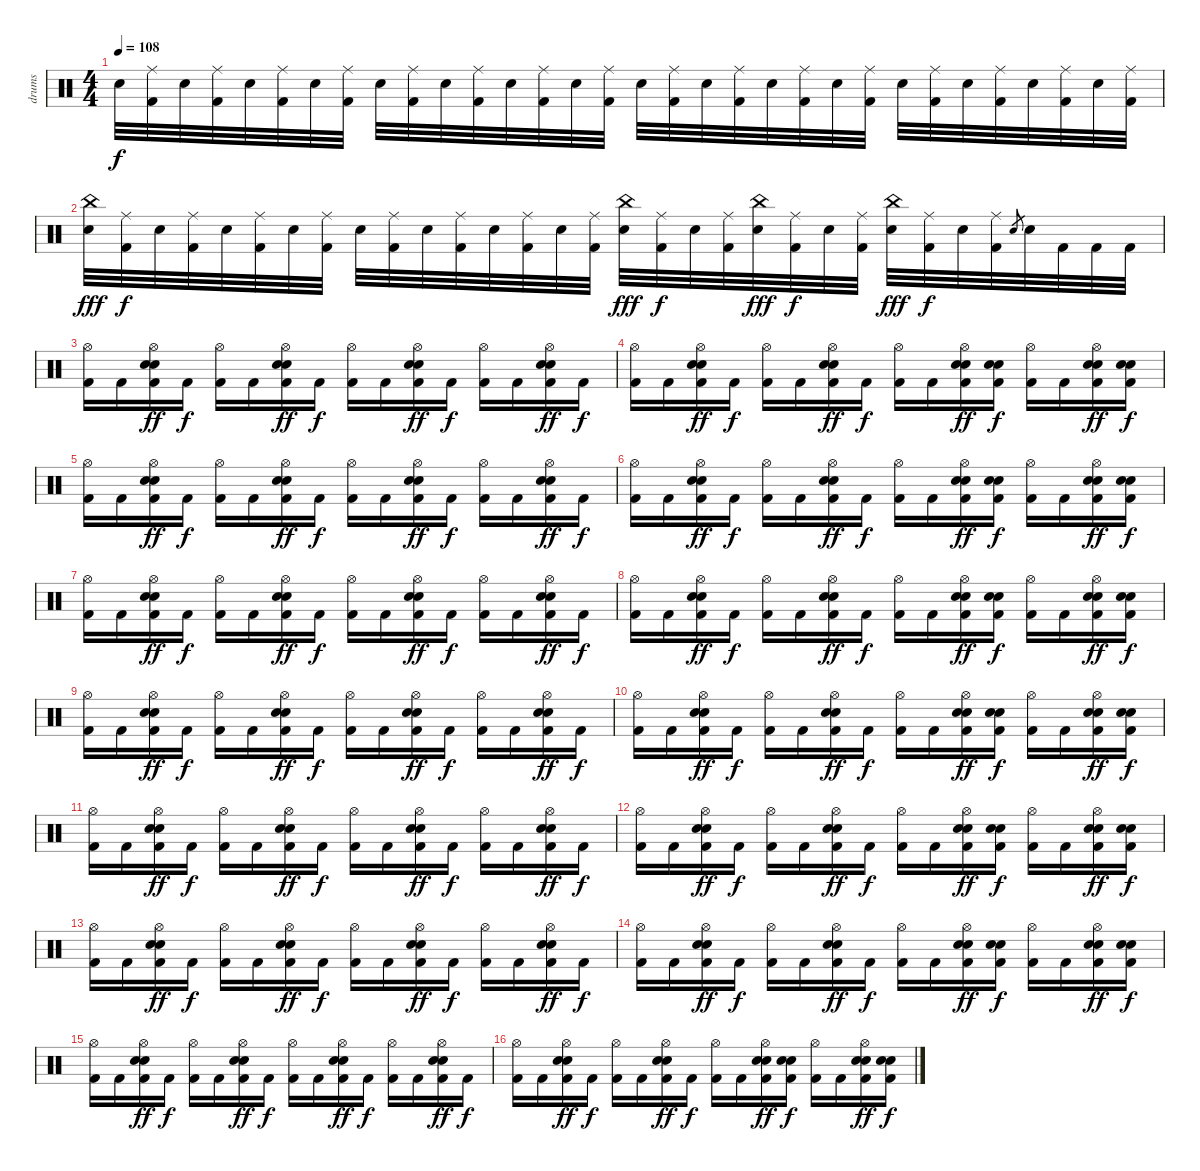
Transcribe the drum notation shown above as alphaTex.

\track ("drums" "drums") {instrument percussion}
\staff {score}
\articulation defaults
\ts (4 4)
\tempo 108
\clef neutral
\ks c "Electric Snare (hit)".32{dy f}
("Ride (middle)" "Kick (hit) 2").32 "Electric Snare (hit)".32 ("Ride (middle)" "Kick (hit) 2").32 "Electric Snare (hit)".32 ("Ride (middle)" "Kick (hit) 2").32 "Electric Snare (hit)".32 ("Ride (middle)" "Kick (hit) 2").32 "Electric Snare (hit)".32 ("Ride (middle)" "Kick (hit) 2").32 "Electric Snare (hit)".32 ("Ride (middle)" "Kick (hit) 2").32 "Electric Snare (hit)".32 ("Ride (middle)" "Kick (hit) 2").32 "Electric Snare (hit)".32 ("Ride (middle)" "Kick (hit) 2").32 "Electric Snare (hit)".32 ("Ride (middle)" "Kick (hit) 2").32 "Electric Snare (hit)".32 ("Ride (middle)" "Kick (hit) 2").32 "Electric Snare (hit)".32 ("Ride (middle)" "Kick (hit) 2").32 "Electric Snare (hit)".32 ("Ride (middle)" "Kick (hit) 2").32 "Electric Snare (hit)".32 ("Ride (middle)" "Kick (hit) 2").32 "Electric Snare (hit)".32 ("Ride (middle)" "Kick (hit) 2").32 "Electric Snare (hit)".32 ("Ride (middle)" "Kick (hit) 2").32 "Electric Snare (hit)".32 ("Ride (middle)" "Kick (hit) 2").32 |
("Electric Snare (hit)" "China (hit)").32{dy fff} ("Ride (middle)" "Kick (hit) 2").32{dy f} "Electric Snare (hit)".32 ("Ride (middle)" "Kick (hit) 2").32 "Electric Snare (hit)".32 ("Ride (middle)" "Kick (hit) 2").32 "Electric Snare (hit)".32 ("Ride (middle)" "Kick (hit) 2").32 "Electric Snare (hit)".32 ("Ride (middle)" "Kick (hit) 2").32 "Electric Snare (hit)".32 ("Ride (middle)" "Kick (hit) 2").32 "Electric Snare (hit)".32 ("Ride (middle)" "Kick (hit) 2").32 "Electric Snare (hit)".32 ("Ride (middle)" "Kick (hit) 2").32 ("Electric Snare (hit)" "China (hit)").32{dy fff} ("Ride (middle)" "Kick (hit) 2").32{dy f} "Electric Snare (hit)".32 ("Ride (middle)" "Kick (hit) 2").32 ("Electric Snare (hit)" "China (hit)").32{dy fff} ("Ride (middle)" "Kick (hit) 2").32{dy f} "Electric Snare (hit)".32 ("Ride (middle)" "Kick (hit) 2").32 ("Electric Snare (hit)" "China (hit)").32{dy fff} ("Ride (middle)" "Kick (hit) 2").32{dy f} "Electric Snare (hit)".32 ("Ride (middle)" "Kick (hit) 2").32 "Electric Snare (hit)".8{gr} "Electric Snare (hit)".32 "Kick (hit) 2".32 "Kick (hit) 2".32 "Kick (hit) 2".32 |
("Hi-Hat (open)" "Kick (hit) 2").16 "Kick (hit) 2".16 ("Electric Snare (hit)" "Hand Clap (hit)" "Hi-Hat (open)" "Kick (hit) 2").16{dy ff} "Kick (hit) 2".16{dy f} ("Hi-Hat (open)" "Kick (hit) 2").16 "Kick (hit) 2".16 ("Electric Snare (hit)" "Hand Clap (hit)" "Hi-Hat (open)" "Kick (hit) 2").16{dy ff} "Kick (hit) 2".16{dy f} ("Hi-Hat (open)" "Kick (hit) 2").16 "Kick (hit) 2".16 ("Electric Snare (hit)" "Hand Clap (hit)" "Hi-Hat (open)" "Kick (hit) 2").16{dy ff} "Kick (hit) 2".16{dy f} ("Hi-Hat (open)" "Kick (hit) 2").16 "Kick (hit) 2".16 ("Electric Snare (hit)" "Hand Clap (hit)" "Hi-Hat (open)" "Kick (hit) 2").16{dy ff} "Kick (hit) 2".16{dy f} |
("Hi-Hat (open)" "Kick (hit) 2").16 "Kick (hit) 2".16 ("Electric Snare (hit)" "Hand Clap (hit)" "Hi-Hat (open)" "Kick (hit) 2").16{dy ff} "Kick (hit) 2".16{dy f} ("Hi-Hat (open)" "Kick (hit) 2").16 "Kick (hit) 2".16 ("Electric Snare (hit)" "Hand Clap (hit)" "Hi-Hat (open)" "Kick (hit) 2").16{dy ff} "Kick (hit) 2".16{dy f} ("Hi-Hat (open)" "Kick (hit) 2").16 "Kick (hit) 2".16 ("Electric Snare (hit)" "Hand Clap (hit)" "Hi-Hat (open)" "Kick (hit) 2").16{dy ff} ("Electric Snare (hit)" "Hand Clap (hit)" "Kick (hit) 2").16{dy f} ("Hi-Hat (open)" "Kick (hit) 2").16 "Kick (hit) 2".16 ("Electric Snare (hit)" "Hand Clap (hit)" "Hi-Hat (open)" "Kick (hit) 2").16{dy ff} ("Electric Snare (hit)" "Hand Clap (hit)" "Kick (hit) 2").16{dy f} |
("Hi-Hat (open)" "Kick (hit) 2").16 "Kick (hit) 2".16 ("Electric Snare (hit)" "Hand Clap (hit)" "Hi-Hat (open)" "Kick (hit) 2").16{dy ff} "Kick (hit) 2".16{dy f} ("Hi-Hat (open)" "Kick (hit) 2").16 "Kick (hit) 2".16 ("Electric Snare (hit)" "Hand Clap (hit)" "Hi-Hat (open)" "Kick (hit) 2").16{dy ff} "Kick (hit) 2".16{dy f} ("Hi-Hat (open)" "Kick (hit) 2").16 "Kick (hit) 2".16 ("Electric Snare (hit)" "Hand Clap (hit)" "Hi-Hat (open)" "Kick (hit) 2").16{dy ff} "Kick (hit) 2".16{dy f} ("Hi-Hat (open)" "Kick (hit) 2").16 "Kick (hit) 2".16 ("Electric Snare (hit)" "Hand Clap (hit)" "Hi-Hat (open)" "Kick (hit) 2").16{dy ff} "Kick (hit) 2".16{dy f} |
("Hi-Hat (open)" "Kick (hit) 2").16 "Kick (hit) 2".16 ("Electric Snare (hit)" "Hand Clap (hit)" "Hi-Hat (open)" "Kick (hit) 2").16{dy ff} "Kick (hit) 2".16{dy f} ("Hi-Hat (open)" "Kick (hit) 2").16 "Kick (hit) 2".16 ("Electric Snare (hit)" "Hand Clap (hit)" "Hi-Hat (open)" "Kick (hit) 2").16{dy ff} "Kick (hit) 2".16{dy f} ("Hi-Hat (open)" "Kick (hit) 2").16 "Kick (hit) 2".16 ("Electric Snare (hit)" "Hand Clap (hit)" "Hi-Hat (open)" "Kick (hit) 2").16{dy ff} ("Electric Snare (hit)" "Hand Clap (hit)" "Kick (hit) 2").16{dy f} ("Hi-Hat (open)" "Kick (hit) 2").16 "Kick (hit) 2".16 ("Electric Snare (hit)" "Hand Clap (hit)" "Hi-Hat (open)" "Kick (hit) 2").16{dy ff} ("Electric Snare (hit)" "Hand Clap (hit)" "Kick (hit) 2").16{dy f} |
("Hi-Hat (open)" "Kick (hit) 2").16 "Kick (hit) 2".16 ("Electric Snare (hit)" "Hand Clap (hit)" "Hi-Hat (open)" "Kick (hit) 2").16{dy ff} "Kick (hit) 2".16{dy f} ("Hi-Hat (open)" "Kick (hit) 2").16 "Kick (hit) 2".16 ("Electric Snare (hit)" "Hand Clap (hit)" "Hi-Hat (open)" "Kick (hit) 2").16{dy ff} "Kick (hit) 2".16{dy f} ("Hi-Hat (open)" "Kick (hit) 2").16 "Kick (hit) 2".16 ("Electric Snare (hit)" "Hand Clap (hit)" "Hi-Hat (open)" "Kick (hit) 2").16{dy ff} "Kick (hit) 2".16{dy f} ("Hi-Hat (open)" "Kick (hit) 2").16 "Kick (hit) 2".16 ("Electric Snare (hit)" "Hand Clap (hit)" "Hi-Hat (open)" "Kick (hit) 2").16{dy ff} "Kick (hit) 2".16{dy f} |
("Hi-Hat (open)" "Kick (hit) 2").16 "Kick (hit) 2".16 ("Electric Snare (hit)" "Hand Clap (hit)" "Hi-Hat (open)" "Kick (hit) 2").16{dy ff} "Kick (hit) 2".16{dy f} ("Hi-Hat (open)" "Kick (hit) 2").16 "Kick (hit) 2".16 ("Electric Snare (hit)" "Hand Clap (hit)" "Hi-Hat (open)" "Kick (hit) 2").16{dy ff} "Kick (hit) 2".16{dy f} ("Hi-Hat (open)" "Kick (hit) 2").16 "Kick (hit) 2".16 ("Electric Snare (hit)" "Hand Clap (hit)" "Hi-Hat (open)" "Kick (hit) 2").16{dy ff} ("Electric Snare (hit)" "Hand Clap (hit)" "Kick (hit) 2").16{dy f} ("Hi-Hat (open)" "Kick (hit) 2").16 "Kick (hit) 2".16 ("Electric Snare (hit)" "Hand Clap (hit)" "Hi-Hat (open)" "Kick (hit) 2").16{dy ff} ("Electric Snare (hit)" "Hand Clap (hit)" "Kick (hit) 2").16{dy f} |
("Hi-Hat (open)" "Kick (hit) 2").16 "Kick (hit) 2".16 ("Electric Snare (hit)" "Hand Clap (hit)" "Hi-Hat (open)" "Kick (hit) 2").16{dy ff} "Kick (hit) 2".16{dy f} ("Hi-Hat (open)" "Kick (hit) 2").16 "Kick (hit) 2".16 ("Electric Snare (hit)" "Hand Clap (hit)" "Hi-Hat (open)" "Kick (hit) 2").16{dy ff} "Kick (hit) 2".16{dy f} ("Hi-Hat (open)" "Kick (hit) 2").16 "Kick (hit) 2".16 ("Electric Snare (hit)" "Hand Clap (hit)" "Hi-Hat (open)" "Kick (hit) 2").16{dy ff} "Kick (hit) 2".16{dy f} ("Hi-Hat (open)" "Kick (hit) 2").16 "Kick (hit) 2".16 ("Electric Snare (hit)" "Hand Clap (hit)" "Hi-Hat (open)" "Kick (hit) 2").16{dy ff} "Kick (hit) 2".16{dy f} |
("Hi-Hat (open)" "Kick (hit) 2").16 "Kick (hit) 2".16 ("Electric Snare (hit)" "Hand Clap (hit)" "Hi-Hat (open)" "Kick (hit) 2").16{dy ff} "Kick (hit) 2".16{dy f} ("Hi-Hat (open)" "Kick (hit) 2").16 "Kick (hit) 2".16 ("Electric Snare (hit)" "Hand Clap (hit)" "Hi-Hat (open)" "Kick (hit) 2").16{dy ff} "Kick (hit) 2".16{dy f} ("Hi-Hat (open)" "Kick (hit) 2").16 "Kick (hit) 2".16 ("Electric Snare (hit)" "Hand Clap (hit)" "Hi-Hat (open)" "Kick (hit) 2").16{dy ff} ("Electric Snare (hit)" "Hand Clap (hit)" "Kick (hit) 2").16{dy f} ("Hi-Hat (open)" "Kick (hit) 2").16 "Kick (hit) 2".16 ("Electric Snare (hit)" "Hand Clap (hit)" "Hi-Hat (open)" "Kick (hit) 2").16{dy ff} ("Electric Snare (hit)" "Hand Clap (hit)" "Kick (hit) 2").16{dy f} |
("Hi-Hat (open)" "Kick (hit) 2").16 "Kick (hit) 2".16 ("Electric Snare (hit)" "Hand Clap (hit)" "Hi-Hat (open)" "Kick (hit) 2").16{dy ff} "Kick (hit) 2".16{dy f} ("Hi-Hat (open)" "Kick (hit) 2").16 "Kick (hit) 2".16 ("Electric Snare (hit)" "Hand Clap (hit)" "Hi-Hat (open)" "Kick (hit) 2").16{dy ff} "Kick (hit) 2".16{dy f} ("Hi-Hat (open)" "Kick (hit) 2").16 "Kick (hit) 2".16 ("Electric Snare (hit)" "Hand Clap (hit)" "Hi-Hat (open)" "Kick (hit) 2").16{dy ff} "Kick (hit) 2".16{dy f} ("Hi-Hat (open)" "Kick (hit) 2").16 "Kick (hit) 2".16 ("Electric Snare (hit)" "Hand Clap (hit)" "Hi-Hat (open)" "Kick (hit) 2").16{dy ff} "Kick (hit) 2".16{dy f} |
("Hi-Hat (open)" "Kick (hit) 2").16 "Kick (hit) 2".16 ("Electric Snare (hit)" "Hand Clap (hit)" "Hi-Hat (open)" "Kick (hit) 2").16{dy ff} "Kick (hit) 2".16{dy f} ("Hi-Hat (open)" "Kick (hit) 2").16 "Kick (hit) 2".16 ("Electric Snare (hit)" "Hand Clap (hit)" "Hi-Hat (open)" "Kick (hit) 2").16{dy ff} "Kick (hit) 2".16{dy f} ("Hi-Hat (open)" "Kick (hit) 2").16 "Kick (hit) 2".16 ("Electric Snare (hit)" "Hand Clap (hit)" "Hi-Hat (open)" "Kick (hit) 2").16{dy ff} ("Electric Snare (hit)" "Hand Clap (hit)" "Kick (hit) 2").16{dy f} ("Hi-Hat (open)" "Kick (hit) 2").16 "Kick (hit) 2".16 ("Electric Snare (hit)" "Hand Clap (hit)" "Hi-Hat (open)" "Kick (hit) 2").16{dy ff} ("Electric Snare (hit)" "Hand Clap (hit)" "Kick (hit) 2").16{dy f} |
("Hi-Hat (open)" "Kick (hit) 2").16 "Kick (hit) 2".16 ("Electric Snare (hit)" "Hand Clap (hit)" "Hi-Hat (open)" "Kick (hit) 2").16{dy ff} "Kick (hit) 2".16{dy f} ("Hi-Hat (open)" "Kick (hit) 2").16 "Kick (hit) 2".16 ("Electric Snare (hit)" "Hand Clap (hit)" "Hi-Hat (open)" "Kick (hit) 2").16{dy ff} "Kick (hit) 2".16{dy f} ("Hi-Hat (open)" "Kick (hit) 2").16 "Kick (hit) 2".16 ("Electric Snare (hit)" "Hand Clap (hit)" "Hi-Hat (open)" "Kick (hit) 2").16{dy ff} "Kick (hit) 2".16{dy f} ("Hi-Hat (open)" "Kick (hit) 2").16 "Kick (hit) 2".16 ("Electric Snare (hit)" "Hand Clap (hit)" "Hi-Hat (open)" "Kick (hit) 2").16{dy ff} "Kick (hit) 2".16{dy f} |
("Hi-Hat (open)" "Kick (hit) 2").16 "Kick (hit) 2".16 ("Electric Snare (hit)" "Hand Clap (hit)" "Hi-Hat (open)" "Kick (hit) 2").16{dy ff} "Kick (hit) 2".16{dy f} ("Hi-Hat (open)" "Kick (hit) 2").16 "Kick (hit) 2".16 ("Electric Snare (hit)" "Hand Clap (hit)" "Hi-Hat (open)" "Kick (hit) 2").16{dy ff} "Kick (hit) 2".16{dy f} ("Hi-Hat (open)" "Kick (hit) 2").16 "Kick (hit) 2".16 ("Electric Snare (hit)" "Hand Clap (hit)" "Hi-Hat (open)" "Kick (hit) 2").16{dy ff} ("Electric Snare (hit)" "Hand Clap (hit)" "Kick (hit) 2").16{dy f} ("Hi-Hat (open)" "Kick (hit) 2").16 "Kick (hit) 2".16 ("Electric Snare (hit)" "Hand Clap (hit)" "Hi-Hat (open)" "Kick (hit) 2").16{dy ff} ("Electric Snare (hit)" "Hand Clap (hit)" "Kick (hit) 2").16{dy f} |
("Hi-Hat (open)" "Kick (hit) 2").16 "Kick (hit) 2".16 ("Electric Snare (hit)" "Hand Clap (hit)" "Hi-Hat (open)" "Kick (hit) 2").16{dy ff} "Kick (hit) 2".16{dy f} ("Hi-Hat (open)" "Kick (hit) 2").16 "Kick (hit) 2".16 ("Electric Snare (hit)" "Hand Clap (hit)" "Hi-Hat (open)" "Kick (hit) 2").16{dy ff} "Kick (hit) 2".16{dy f} ("Hi-Hat (open)" "Kick (hit) 2").16 "Kick (hit) 2".16 ("Electric Snare (hit)" "Hand Clap (hit)" "Hi-Hat (open)" "Kick (hit) 2").16{dy ff} "Kick (hit) 2".16{dy f} ("Hi-Hat (open)" "Kick (hit) 2").16 "Kick (hit) 2".16 ("Electric Snare (hit)" "Hand Clap (hit)" "Hi-Hat (open)" "Kick (hit) 2").16{dy ff} "Kick (hit) 2".16{dy f} |
("Hi-Hat (open)" "Kick (hit) 2").16 "Kick (hit) 2".16 ("Electric Snare (hit)" "Hand Clap (hit)" "Hi-Hat (open)" "Kick (hit) 2").16{dy ff} "Kick (hit) 2".16{dy f} ("Hi-Hat (open)" "Kick (hit) 2").16 "Kick (hit) 2".16 ("Electric Snare (hit)" "Hand Clap (hit)" "Hi-Hat (open)" "Kick (hit) 2").16{dy ff} "Kick (hit) 2".16{dy f} ("Hi-Hat (open)" "Kick (hit) 2").16 "Kick (hit) 2".16 ("Electric Snare (hit)" "Hand Clap (hit)" "Hi-Hat (open)" "Kick (hit) 2").16{dy ff} ("Electric Snare (hit)" "Hand Clap (hit)" "Kick (hit) 2").16{dy f} ("Hi-Hat (open)" "Kick (hit) 2").16 "Kick (hit) 2".16 ("Electric Snare (hit)" "Hand Clap (hit)" "Hi-Hat (open)" "Kick (hit) 2").16{dy ff} ("Electric Snare (hit)" "Hand Clap (hit)" "Kick (hit) 2").16{dy f}
